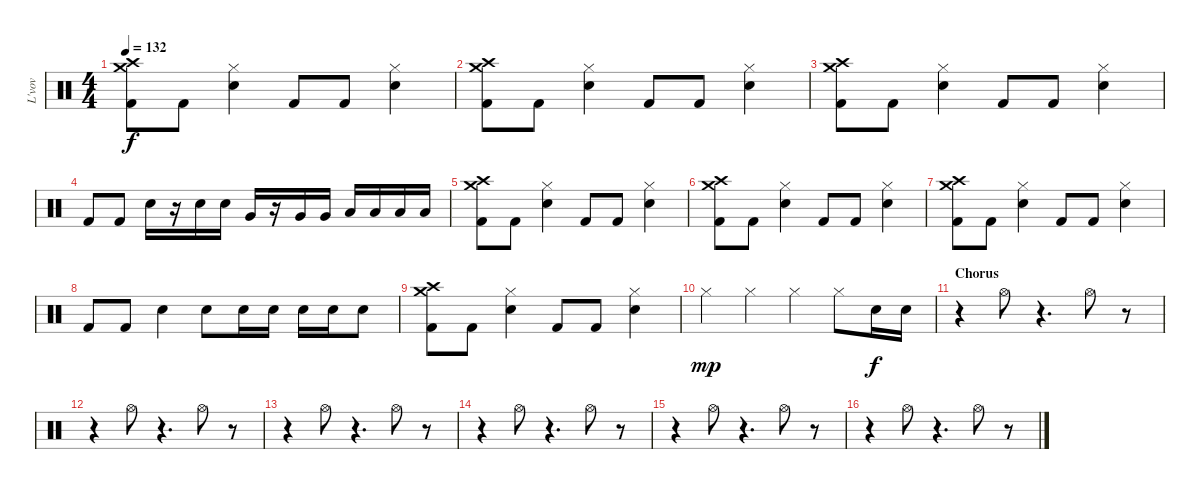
\track ("L'vov" "L'vov") {instrument percussion}
\staff {score}
\articulation defaults
\ts (4 4)
\tempo 132
\clef neutral
\ks c
("Kick (hit) 2" "Crash high (hit)" "Crash medium (hit)").8{dy f} "Kick (hit) 2".8 ("Snare (hit) 2" "Hi-Hat (closed)").4 "Kick (hit) 2".8 "Kick (hit) 2".8 ("Snare (hit) 2" "Hi-Hat (closed)").4 |
("Kick (hit) 2" "Crash high (hit)" "Crash medium (hit)").8 "Kick (hit) 2".8 ("Snare (hit) 2" "Hi-Hat (closed)").4 "Kick (hit) 2".8 "Kick (hit) 2".8 ("Snare (hit) 2" "Hi-Hat (closed)").4 |
("Kick (hit) 2" "Crash high (hit)" "Crash medium (hit)").8 "Kick (hit) 2".8 ("Snare (hit) 2" "Hi-Hat (closed)").4 "Kick (hit) 2".8 "Kick (hit) 2".8 ("Snare (hit) 2" "Hi-Hat (closed)").4 |
"Kick (hit) 2".8 "Kick (hit) 2".8 "Snare (hit) 2".16 r.16 "Snare (hit) 2".16 "Snare (hit) 2".16 "Very Low Tom (hit)".16 r.16 "Very Low Tom (hit)".16 "Very Low Tom (hit)".16 "Low Tom (hit)".16 "Low Tom (hit)".16 "Low Floor Tom (hit)".16 "Low Floor Tom (hit)".16 |
("Kick (hit) 2" "Crash high (hit)" "Crash medium (hit)").8 "Kick (hit) 2".8 ("Snare (hit) 2" "Hi-Hat (closed)").4 "Kick (hit) 2".8 "Kick (hit) 2".8 ("Snare (hit) 2" "Hi-Hat (closed)").4 |
("Kick (hit) 2" "Crash high (hit)" "Crash medium (hit)").8 "Kick (hit) 2".8 ("Snare (hit) 2" "Hi-Hat (closed)").4 "Kick (hit) 2".8 "Kick (hit) 2".8 ("Snare (hit) 2" "Hi-Hat (closed)").4 |
("Kick (hit) 2" "Crash high (hit)" "Crash medium (hit)").8 "Kick (hit) 2".8 ("Snare (hit) 2" "Hi-Hat (closed)").4 "Kick (hit) 2".8 "Kick (hit) 2".8 ("Snare (hit) 2" "Hi-Hat (closed)").4 |
"Kick (hit) 2".8 "Kick (hit) 2".8 "Snare (hit) 2".4 "Snare (hit) 2".8 "Snare (hit) 2".16 "Snare (hit) 2".16 "Snare (hit) 2".16 "Snare (hit) 2".16 "Snare (hit) 2".8 |
("Kick (hit) 2" "Crash high (hit)" "Crash medium (hit)").8 "Kick (hit) 2".8 ("Snare (hit) 2" "Hi-Hat (closed)").4 "Kick (hit) 2".8 "Kick (hit) 2".8 ("Snare (hit) 2" "Hi-Hat (closed)").4 |
"Hi-Hat (closed)".4{dy mp} "Hi-Hat (closed)".4 "Hi-Hat (closed)".4 "Hi-Hat (closed)".8 "Snare (hit) 2".16{dy f} "Snare (hit) 2".16 |
\section ("" "Chorus")
r.4 "Hi-Hat (open)".8 r.4{d} "Hi-Hat (open)".8 r.8 |
r.4 "Hi-Hat (open)".8 r.4{d} "Hi-Hat (open)".8 r.8 |
r.4 "Hi-Hat (open)".8 r.4{d} "Hi-Hat (open)".8 r.8 |
r.4 "Hi-Hat (open)".8 r.4{d} "Hi-Hat (open)".8 r.8 |
r.4 "Hi-Hat (open)".8 r.4{d} "Hi-Hat (open)".8 r.8 |
r.4 "Hi-Hat (open)".8 r.4{d} "Hi-Hat (open)".8 r.8
